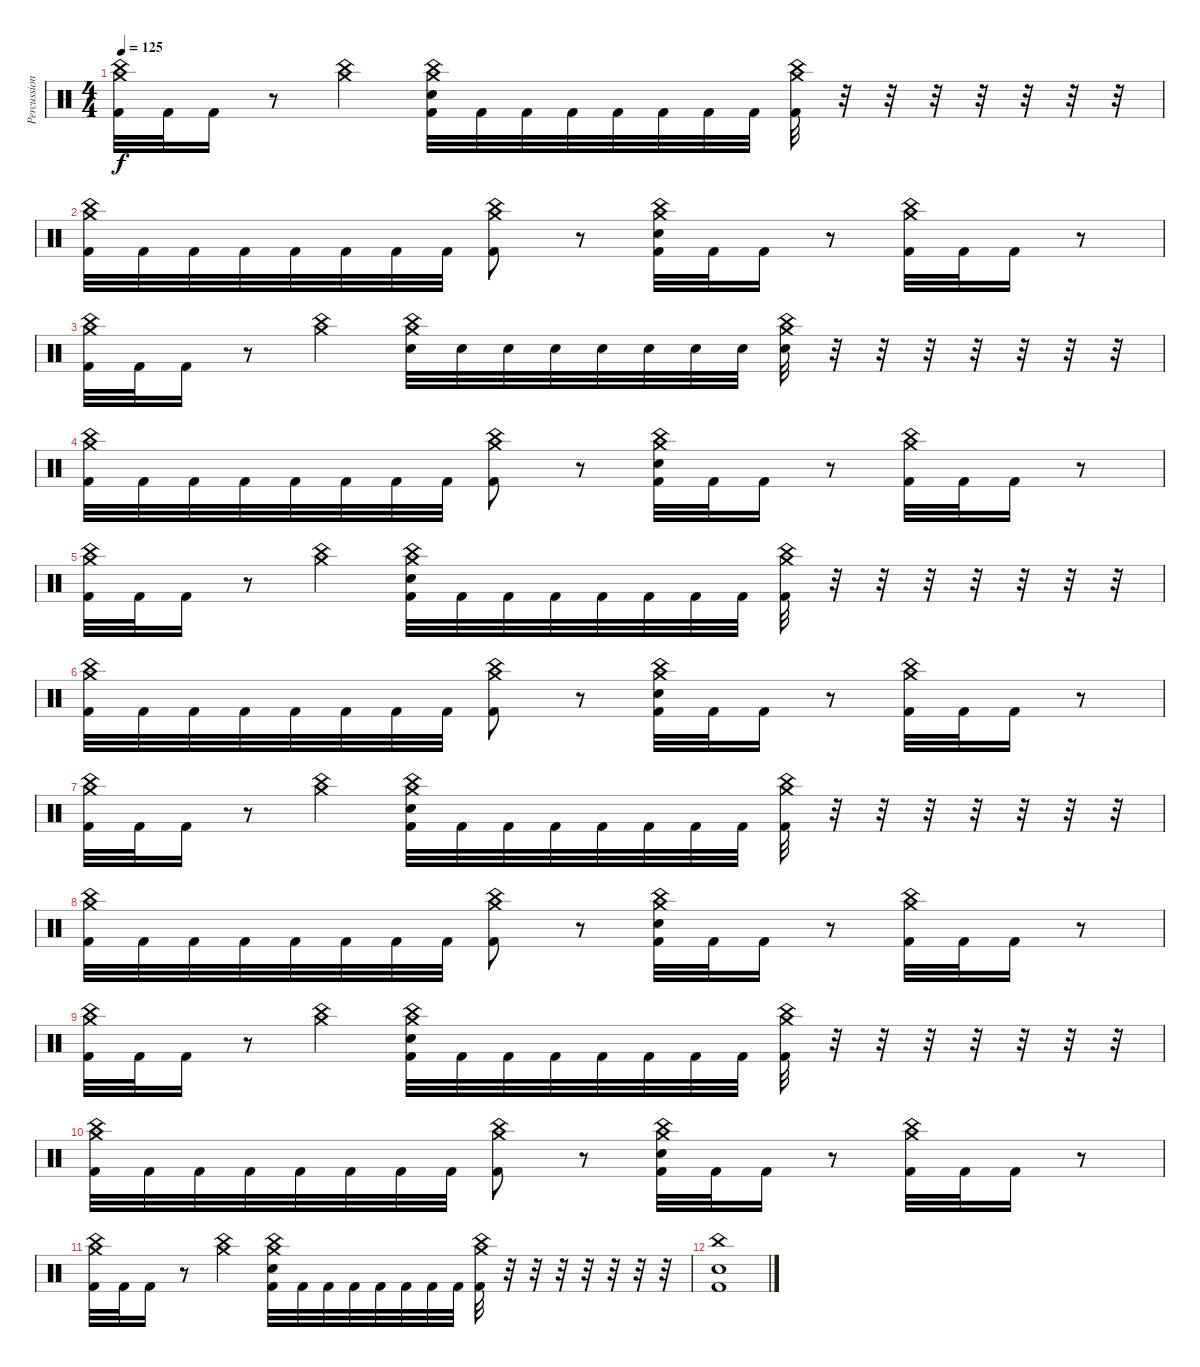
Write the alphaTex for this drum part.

\track ("Percussions" "Percussion") {instrument percussion}
\staff {score}
\articulation defaults
\ts (4 4)
\tempo 125
\clef neutral
\ks c
("China (hit)" "Crash medium (hit)" "Kick (hit) 2").32{dy f} "Kick (hit) 2".32 "Kick (hit) 2".16 r.8 ("China (hit)" "Crash medium (hit)").4 ("China (hit)" "Crash medium (hit)" "Electric Snare (hit)" "Kick (hit) 2").32 "Kick (hit) 2".32 "Kick (hit) 2".32 "Kick (hit) 2".32 "Kick (hit) 2".32 "Kick (hit) 2".32 "Kick (hit) 2".32 "Kick (hit) 2".32 ("China (hit)" "Crash medium (hit)" "Kick (hit) 2").32 r.32 r.32 r.32 r.32 r.32 r.32 r.32 |
("China (hit)" "Crash medium (hit)" "Kick (hit) 2").32 "Kick (hit) 2".32 "Kick (hit) 2".32 "Kick (hit) 2".32 "Kick (hit) 2".32 "Kick (hit) 2".32 "Kick (hit) 2".32 "Kick (hit) 2".32 ("China (hit)" "Crash medium (hit)" "Kick (hit) 2").8 r.8 ("Crash medium (hit)" "China (hit)" "Electric Snare (hit)" "Kick (hit) 2").32 "Kick (hit) 2".32 "Kick (hit) 2".16 r.8 ("Crash medium (hit)" "China (hit)" "Kick (hit) 2").32 "Kick (hit) 2".32 "Kick (hit) 2".16 r.8 |
("China (hit)" "Crash medium (hit)" "Kick (hit) 2").32 "Kick (hit) 2".32 "Kick (hit) 2".16 r.8 ("China (hit)" "Crash medium (hit)").4 ("China (hit)" "Crash medium (hit)" "Electric Snare (hit)").32 "Electric Snare (hit)".32 "Electric Snare (hit)".32 "Electric Snare (hit)".32 "Electric Snare (hit)".32 "Electric Snare (hit)".32 "Electric Snare (hit)".32 "Electric Snare (hit)".32 ("China (hit)" "Crash medium (hit)" "Electric Snare (hit)").32 r.32 r.32 r.32 r.32 r.32 r.32 r.32 |
("China (hit)" "Crash medium (hit)" "Kick (hit) 2").32 "Kick (hit) 2".32 "Kick (hit) 2".32 "Kick (hit) 2".32 "Kick (hit) 2".32 "Kick (hit) 2".32 "Kick (hit) 2".32 "Kick (hit) 2".32 ("China (hit)" "Crash medium (hit)" "Kick (hit) 2").8 r.8 ("Crash medium (hit)" "China (hit)" "Electric Snare (hit)" "Kick (hit) 2").32 "Kick (hit) 2".32 "Kick (hit) 2".16 r.8 ("Crash medium (hit)" "China (hit)" "Kick (hit) 2").32 "Kick (hit) 2".32 "Kick (hit) 2".16 r.8 |
("China (hit)" "Crash medium (hit)" "Kick (hit) 2").32 "Kick (hit) 2".32 "Kick (hit) 2".16 r.8 ("China (hit)" "Crash medium (hit)").4 ("China (hit)" "Crash medium (hit)" "Electric Snare (hit)" "Kick (hit) 2").32 "Kick (hit) 2".32 "Kick (hit) 2".32 "Kick (hit) 2".32 "Kick (hit) 2".32 "Kick (hit) 2".32 "Kick (hit) 2".32 "Kick (hit) 2".32 ("China (hit)" "Crash medium (hit)" "Kick (hit) 2").32 r.32 r.32 r.32 r.32 r.32 r.32 r.32 |
("China (hit)" "Crash medium (hit)" "Kick (hit) 2").32 "Kick (hit) 2".32 "Kick (hit) 2".32 "Kick (hit) 2".32 "Kick (hit) 2".32 "Kick (hit) 2".32 "Kick (hit) 2".32 "Kick (hit) 2".32 ("China (hit)" "Crash medium (hit)" "Kick (hit) 2").8 r.8 ("Crash medium (hit)" "China (hit)" "Electric Snare (hit)" "Kick (hit) 2").32 "Kick (hit) 2".32 "Kick (hit) 2".16 r.8 ("Crash medium (hit)" "China (hit)" "Kick (hit) 2").32 "Kick (hit) 2".32 "Kick (hit) 2".16 r.8 |
("China (hit)" "Crash medium (hit)" "Kick (hit) 2").32 "Kick (hit) 2".32 "Kick (hit) 2".16 r.8 ("China (hit)" "Crash medium (hit)").4 ("China (hit)" "Crash medium (hit)" "Electric Snare (hit)" "Kick (hit) 2").32 "Kick (hit) 2".32 "Kick (hit) 2".32 "Kick (hit) 2".32 "Kick (hit) 2".32 "Kick (hit) 2".32 "Kick (hit) 2".32 "Kick (hit) 2".32 ("China (hit)" "Crash medium (hit)" "Kick (hit) 2").32 r.32 r.32 r.32 r.32 r.32 r.32 r.32 |
("China (hit)" "Crash medium (hit)" "Kick (hit) 2").32 "Kick (hit) 2".32 "Kick (hit) 2".32 "Kick (hit) 2".32 "Kick (hit) 2".32 "Kick (hit) 2".32 "Kick (hit) 2".32 "Kick (hit) 2".32 ("China (hit)" "Crash medium (hit)" "Kick (hit) 2").8 r.8 ("Crash medium (hit)" "China (hit)" "Electric Snare (hit)" "Kick (hit) 2").32 "Kick (hit) 2".32 "Kick (hit) 2".16 r.8 ("Crash medium (hit)" "China (hit)" "Kick (hit) 2").32 "Kick (hit) 2".32 "Kick (hit) 2".16 r.8 |
("China (hit)" "Crash medium (hit)" "Kick (hit) 2").32 "Kick (hit) 2".32 "Kick (hit) 2".16 r.8 ("China (hit)" "Crash medium (hit)").4 ("China (hit)" "Crash medium (hit)" "Electric Snare (hit)" "Kick (hit) 2").32 "Kick (hit) 2".32 "Kick (hit) 2".32 "Kick (hit) 2".32 "Kick (hit) 2".32 "Kick (hit) 2".32 "Kick (hit) 2".32 "Kick (hit) 2".32 ("China (hit)" "Crash medium (hit)" "Kick (hit) 2").32 r.32 r.32 r.32 r.32 r.32 r.32 r.32 |
("China (hit)" "Crash medium (hit)" "Kick (hit) 2").32 "Kick (hit) 2".32 "Kick (hit) 2".32 "Kick (hit) 2".32 "Kick (hit) 2".32 "Kick (hit) 2".32 "Kick (hit) 2".32 "Kick (hit) 2".32 ("China (hit)" "Crash medium (hit)" "Kick (hit) 2").8 r.8 ("Crash medium (hit)" "China (hit)" "Electric Snare (hit)" "Kick (hit) 2").32 "Kick (hit) 2".32 "Kick (hit) 2".16 r.8 ("Crash medium (hit)" "China (hit)" "Kick (hit) 2").32 "Kick (hit) 2".32 "Kick (hit) 2".16 r.8 |
("China (hit)" "Crash medium (hit)" "Kick (hit) 2").32 "Kick (hit) 2".32 "Kick (hit) 2".16 r.8 ("China (hit)" "Crash medium (hit)").4 ("China (hit)" "Crash medium (hit)" "Electric Snare (hit)" "Kick (hit) 2").32 "Kick (hit) 2".32 "Kick (hit) 2".32 "Kick (hit) 2".32 "Kick (hit) 2".32 "Kick (hit) 2".32 "Kick (hit) 2".32 "Kick (hit) 2".32 ("China (hit)" "Crash medium (hit)" "Kick (hit) 2").32 r.32 r.32 r.32 r.32 r.32 r.32 r.32 |
("China (hit)" "Electric Snare (hit)" "Kick (hit) 2").1
